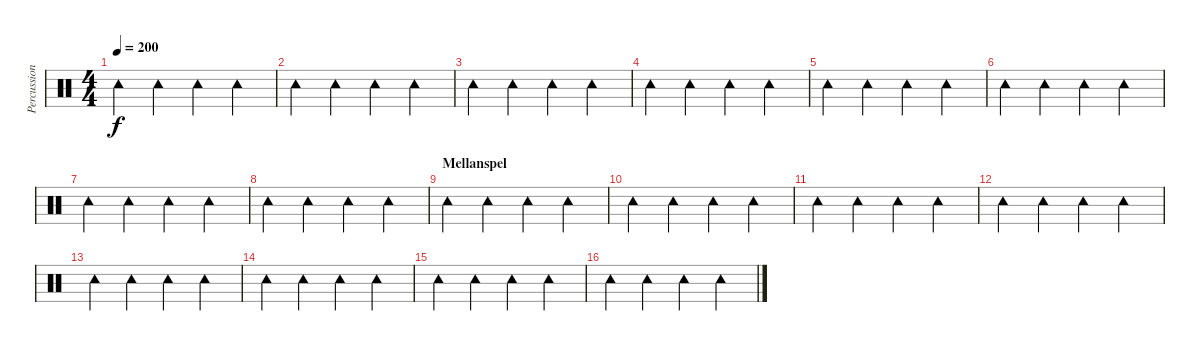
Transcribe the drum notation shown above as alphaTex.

\track ("Percussion" "Percussion") {instrument percussion}
\staff {score}
\articulation defaults
\ts (4 4)
\tempo 200
\clef neutral
\ks c "Tambourine (hit)".4{dy f} "Tambourine (hit)".4 "Tambourine (hit)".4 "Tambourine (hit)".4
|
"Tambourine (hit)".4 "Tambourine (hit)".4 "Tambourine (hit)".4 "Tambourine (hit)".4 |
"Tambourine (hit)".4 "Tambourine (hit)".4 "Tambourine (hit)".4 "Tambourine (hit)".4 |
"Tambourine (hit)".4 "Tambourine (hit)".4 "Tambourine (hit)".4 "Tambourine (hit)".4 |
"Tambourine (hit)".4 "Tambourine (hit)".4 "Tambourine (hit)".4 "Tambourine (hit)".4 |
"Tambourine (hit)".4 "Tambourine (hit)".4 "Tambourine (hit)".4 "Tambourine (hit)".4 |
"Tambourine (hit)".4 "Tambourine (hit)".4 "Tambourine (hit)".4 "Tambourine (hit)".4 |
"Tambourine (hit)".4 "Tambourine (hit)".4 "Tambourine (hit)".4 "Tambourine (hit)".4 |
\section ("" "Mellanspel")
"Tambourine (hit)".4 "Tambourine (hit)".4 "Tambourine (hit)".4 "Tambourine (hit)".4 |
"Tambourine (hit)".4 "Tambourine (hit)".4 "Tambourine (hit)".4 "Tambourine (hit)".4 |
"Tambourine (hit)".4 "Tambourine (hit)".4 "Tambourine (hit)".4 "Tambourine (hit)".4 |
"Tambourine (hit)".4 "Tambourine (hit)".4 "Tambourine (hit)".4 "Tambourine (hit)".4 |
"Tambourine (hit)".4 "Tambourine (hit)".4 "Tambourine (hit)".4 "Tambourine (hit)".4 |
"Tambourine (hit)".4 "Tambourine (hit)".4 "Tambourine (hit)".4 "Tambourine (hit)".4 |
"Tambourine (hit)".4 "Tambourine (hit)".4 "Tambourine (hit)".4 "Tambourine (hit)".4 |
"Tambourine (hit)".4 "Tambourine (hit)".4 "Tambourine (hit)".4 "Tambourine (hit)".4
